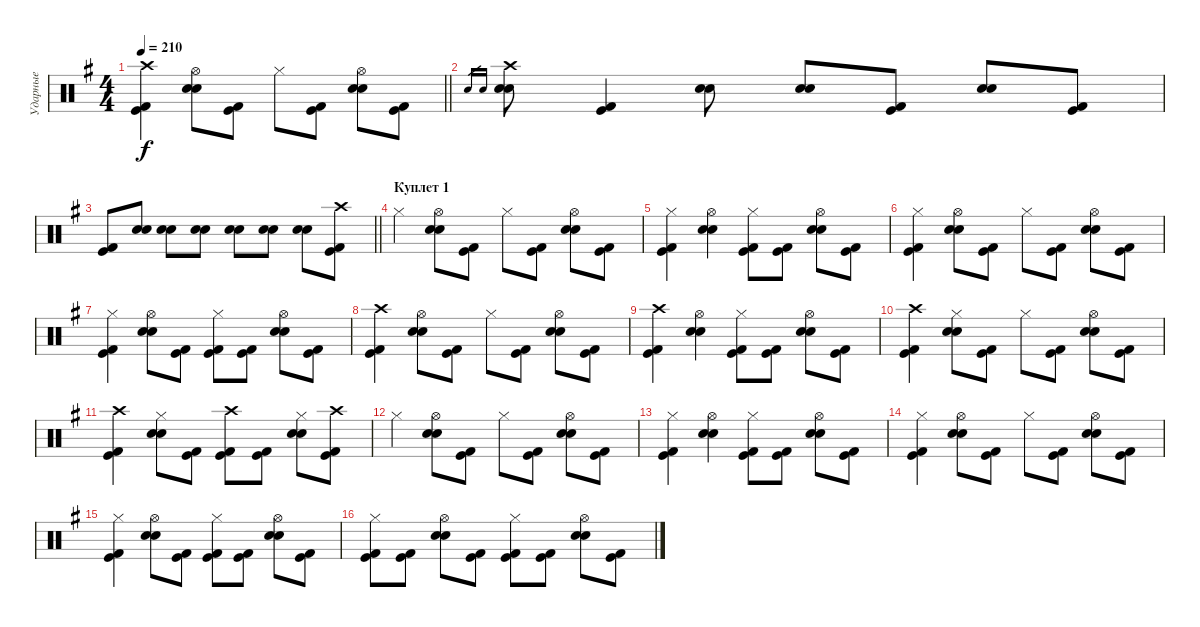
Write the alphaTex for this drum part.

\track ("Ударные" "Ударные") {instrument percussion}
\staff {score}
\articulation defaults
\ts (4 4)
\tempo 210
\clef neutral
\barLineRight lightlight
\ks g
("Crash high (hit)" "Kick (hit) 2" "Kick (hit)").4{dy f} ("Hi-Hat (open)" "Electric Snare (hit)" "Snare (hit) 2").8 ("Kick (hit) 2" "Kick (hit)").8 "Hi-Hat (closed)".8 ("Kick (hit) 2" "Kick (hit)").8 ("Hi-Hat (open)" "Electric Snare (hit)" "Snare (hit) 2").8 ("Kick (hit) 2" "Kick (hit)").8 |
"Electric Snare (hit)".16{gr} "Snare (hit) 2".16{gr} ("Crash high (hit)" "Electric Snare (hit)" "Snare (hit) 2").8 ("Kick (hit) 2" "Kick (hit)").4 ("Electric Snare (hit)" "Snare (hit) 2").8 ("Electric Snare (hit)" "Snare (hit) 2").8 ("Kick (hit) 2" "Kick (hit)").8 ("Electric Snare (hit)" "Snare (hit) 2").8 ("Kick (hit) 2" "Kick (hit)").8 |
\barLineRight lightlight
("Kick (hit) 2" "Kick (hit)").8 ("Electric Snare (hit)" "Snare (hit) 2").8 ("Electric Snare (hit)" "Snare (hit) 2").8 ("Electric Snare (hit)" "Snare (hit) 2").8 ("Electric Snare (hit)" "Snare (hit) 2").8 ("Electric Snare (hit)" "Snare (hit) 2").8 ("Electric Snare (hit)" "Snare (hit) 2").8 ("Crash high (hit)" "Kick (hit) 2" "Kick (hit)").8 |
\section ("" "Куплет 1")
"Hi-Hat (closed)".4 ("Hi-Hat (open)" "Electric Snare (hit)" "Snare (hit) 2").8 ("Kick (hit) 2" "Kick (hit)").8 "Hi-Hat (closed)".8 ("Kick (hit) 2" "Kick (hit)").8 ("Hi-Hat (open)" "Electric Snare (hit)" "Snare (hit) 2").8 ("Kick (hit) 2" "Kick (hit)").8 |
("Hi-Hat (closed)" "Kick (hit) 2" "Kick (hit)").4 ("Hi-Hat (open)" "Electric Snare (hit)" "Snare (hit) 2").4 ("Hi-Hat (closed)" "Kick (hit) 2" "Kick (hit)").8 ("Kick (hit) 2" "Kick (hit)").8 ("Hi-Hat (open)" "Electric Snare (hit)" "Snare (hit) 2").8 ("Kick (hit) 2" "Kick (hit)").8 |
("Hi-Hat (closed)" "Kick (hit) 2" "Kick (hit)").4 ("Hi-Hat (open)" "Electric Snare (hit)" "Snare (hit) 2").8 ("Kick (hit) 2" "Kick (hit)").8 "Hi-Hat (closed)".8 ("Kick (hit) 2" "Kick (hit)").8 ("Hi-Hat (open)" "Electric Snare (hit)" "Snare (hit) 2").8 ("Kick (hit) 2" "Kick (hit)").8 |
("Hi-Hat (closed)" "Kick (hit) 2" "Kick (hit)").4 ("Hi-Hat (open)" "Electric Snare (hit)" "Snare (hit) 2").8 ("Kick (hit) 2" "Kick (hit)").8 ("Hi-Hat (closed)" "Kick (hit) 2" "Kick (hit)").8 ("Kick (hit) 2" "Kick (hit)").8 ("Hi-Hat (open)" "Electric Snare (hit)" "Snare (hit) 2").8 ("Kick (hit) 2" "Kick (hit)").8 |
("Crash high (hit)" "Kick (hit) 2" "Kick (hit)").4 ("Hi-Hat (open)" "Electric Snare (hit)" "Snare (hit) 2").8 ("Kick (hit) 2" "Kick (hit)").8 "Hi-Hat (closed)".8 ("Kick (hit) 2" "Kick (hit)").8 ("Hi-Hat (open)" "Electric Snare (hit)" "Snare (hit) 2").8 ("Kick (hit) 2" "Kick (hit)").8 |
("Crash high (hit)" "Kick (hit) 2" "Kick (hit)").4 ("Hi-Hat (open)" "Electric Snare (hit)" "Snare (hit) 2").4 ("Hi-Hat (closed)" "Kick (hit) 2" "Kick (hit)").8 ("Kick (hit) 2" "Kick (hit)").8 ("Hi-Hat (open)" "Electric Snare (hit)" "Snare (hit) 2").8 ("Kick (hit) 2" "Kick (hit)").8 |
("Crash high (hit)" "Kick (hit) 2" "Kick (hit)").4 ("Hi-Hat (closed)" "Electric Snare (hit)" "Snare (hit) 2").8 ("Kick (hit) 2" "Kick (hit)").8 "Hi-Hat (closed)".8 ("Kick (hit) 2" "Kick (hit)").8 ("Hi-Hat (open)" "Electric Snare (hit)" "Snare (hit) 2").8 ("Kick (hit) 2" "Kick (hit)").8 |
("Crash high (hit)" "Kick (hit) 2" "Kick (hit)").4 ("Hi-Hat (closed)" "Electric Snare (hit)" "Snare (hit) 2").8 ("Kick (hit) 2" "Kick (hit)").8 ("Crash high (hit)" "Kick (hit) 2" "Kick (hit)").8 ("Kick (hit) 2" "Kick (hit)").8 ("Hi-Hat (closed)" "Electric Snare (hit)" "Snare (hit) 2").8 ("Crash high (hit)" "Kick (hit) 2" "Kick (hit)").8 |
"Hi-Hat (closed)".4 ("Hi-Hat (open)" "Electric Snare (hit)" "Snare (hit) 2").8 ("Kick (hit) 2" "Kick (hit)").8 "Hi-Hat (closed)".8 ("Kick (hit) 2" "Kick (hit)").8 ("Hi-Hat (open)" "Electric Snare (hit)" "Snare (hit) 2").8 ("Kick (hit) 2" "Kick (hit)").8 |
("Hi-Hat (closed)" "Kick (hit) 2" "Kick (hit)").4 ("Hi-Hat (open)" "Electric Snare (hit)" "Snare (hit) 2").4 ("Hi-Hat (closed)" "Kick (hit) 2" "Kick (hit)").8 ("Kick (hit) 2" "Kick (hit)").8 ("Hi-Hat (open)" "Electric Snare (hit)" "Snare (hit) 2").8 ("Kick (hit) 2" "Kick (hit)").8 |
("Hi-Hat (closed)" "Kick (hit) 2" "Kick (hit)").4 ("Hi-Hat (open)" "Electric Snare (hit)" "Snare (hit) 2").8 ("Kick (hit) 2" "Kick (hit)").8 "Hi-Hat (closed)".8 ("Kick (hit) 2" "Kick (hit)").8 ("Hi-Hat (open)" "Electric Snare (hit)" "Snare (hit) 2").8 ("Kick (hit) 2" "Kick (hit)").8 |
("Hi-Hat (closed)" "Kick (hit) 2" "Kick (hit)").4 ("Hi-Hat (open)" "Electric Snare (hit)" "Snare (hit) 2").8 ("Kick (hit) 2" "Kick (hit)").8 ("Hi-Hat (closed)" "Kick (hit) 2" "Kick (hit)").8 ("Kick (hit) 2" "Kick (hit)").8 ("Hi-Hat (open)" "Electric Snare (hit)" "Snare (hit) 2").8 ("Kick (hit) 2" "Kick (hit)").8 |
("Hi-Hat (closed)" "Kick (hit) 2" "Kick (hit)").8 ("Kick (hit) 2" "Kick (hit)").8 ("Hi-Hat (open)" "Electric Snare (hit)" "Snare (hit) 2").8 ("Kick (hit) 2" "Kick (hit)").8 ("Hi-Hat (closed)" "Kick (hit) 2" "Kick (hit)").8 ("Kick (hit) 2" "Kick (hit)").8 ("Hi-Hat (open)" "Electric Snare (hit)" "Snare (hit) 2").8 ("Kick (hit) 2" "Kick (hit)").8
